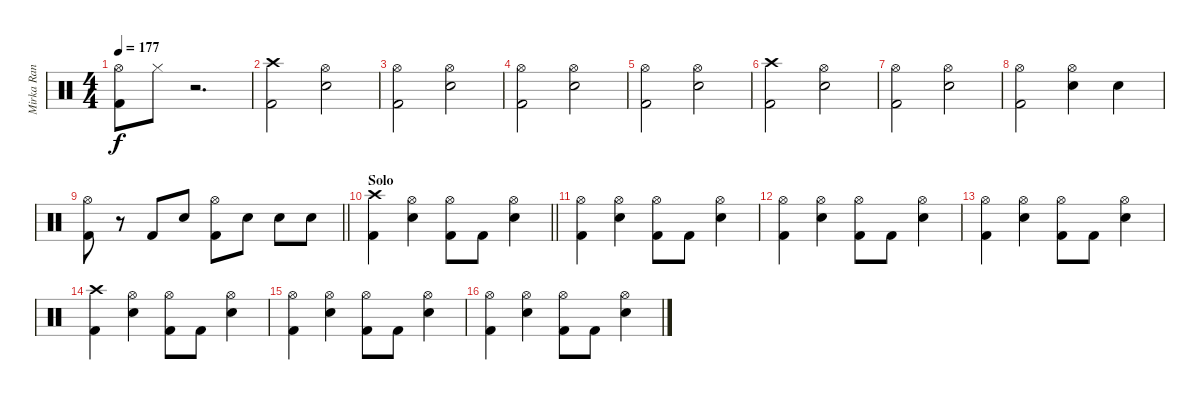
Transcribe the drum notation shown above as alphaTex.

\track (" Mirka Rantanen" " Mirka Ran") {instrument percussion}
\staff {score}
\articulation defaults
\ts (4 4)
\tempo 177
\clef neutral
\ks c
("Hi-Hat (open)" "Kick (hit) 2").8{dy f} "Hi-Hat (closed)".8 r.2{d} |
("Crash high (hit)" "Kick (hit) 2").2 ("Hi-Hat (open)" "Electric Snare (hit)").2 |
("Hi-Hat (open)" "Kick (hit) 2").2 ("Hi-Hat (open)" "Electric Snare (hit)").2 |
("Hi-Hat (open)" "Kick (hit) 2").2 ("Hi-Hat (open)" "Electric Snare (hit)").2 |
("Hi-Hat (open)" "Kick (hit) 2").2 ("Hi-Hat (open)" "Electric Snare (hit)").2 |
("Crash high (hit)" "Kick (hit) 2").2 ("Hi-Hat (open)" "Electric Snare (hit)").2 |
("Hi-Hat (open)" "Kick (hit) 2").2 ("Hi-Hat (open)" "Electric Snare (hit)").2 |
("Hi-Hat (open)" "Kick (hit) 2").2 ("Hi-Hat (open)" "Electric Snare (hit)").4 "Electric Snare (hit)".4 |
\barLineRight lightlight
("Hi-Hat (open)" "Kick (hit) 2").8 r.8 "Kick (hit) 2".8 "Electric Snare (hit)".8 ("Hi-Hat (open)" "Kick (hit) 2").8 "Electric Snare (hit)".8 "Electric Snare (hit)".8 "Electric Snare (hit)".8 |
\section ("" "Solo")
\barLineRight lightlight
("Crash high (hit)" "Kick (hit) 2").4 ("Hi-Hat (open)" "Electric Snare (hit)").4 ("Hi-Hat (open)" "Kick (hit) 2").8 "Kick (hit) 2".8 ("Hi-Hat (open)" "Electric Snare (hit)").4 |
\section ("" "")
("Hi-Hat (open)" "Kick (hit) 2").4 ("Hi-Hat (open)" "Electric Snare (hit)").4 ("Hi-Hat (open)" "Kick (hit) 2").8 "Kick (hit) 2".8 ("Hi-Hat (open)" "Electric Snare (hit)").4 |
("Hi-Hat (open)" "Kick (hit) 2").4 ("Hi-Hat (open)" "Electric Snare (hit)").4 ("Hi-Hat (open)" "Kick (hit) 2").8 "Kick (hit) 2".8 ("Hi-Hat (open)" "Electric Snare (hit)").4 |
("Hi-Hat (open)" "Kick (hit) 2").4 ("Hi-Hat (open)" "Electric Snare (hit)").4 ("Hi-Hat (open)" "Kick (hit) 2").8 "Kick (hit) 2".8 ("Hi-Hat (open)" "Electric Snare (hit)").4 |
("Crash high (hit)" "Kick (hit) 2").4 ("Hi-Hat (open)" "Electric Snare (hit)").4 ("Hi-Hat (open)" "Kick (hit) 2").8 "Kick (hit) 2".8 ("Hi-Hat (open)" "Electric Snare (hit)").4 |
("Hi-Hat (open)" "Kick (hit) 2").4 ("Hi-Hat (open)" "Electric Snare (hit)").4 ("Hi-Hat (open)" "Kick (hit) 2").8 "Kick (hit) 2".8 ("Hi-Hat (open)" "Electric Snare (hit)").4 |
("Hi-Hat (open)" "Kick (hit) 2").4 ("Hi-Hat (open)" "Electric Snare (hit)").4 ("Hi-Hat (open)" "Kick (hit) 2").8 "Kick (hit) 2".8 ("Hi-Hat (open)" "Electric Snare (hit)").4
